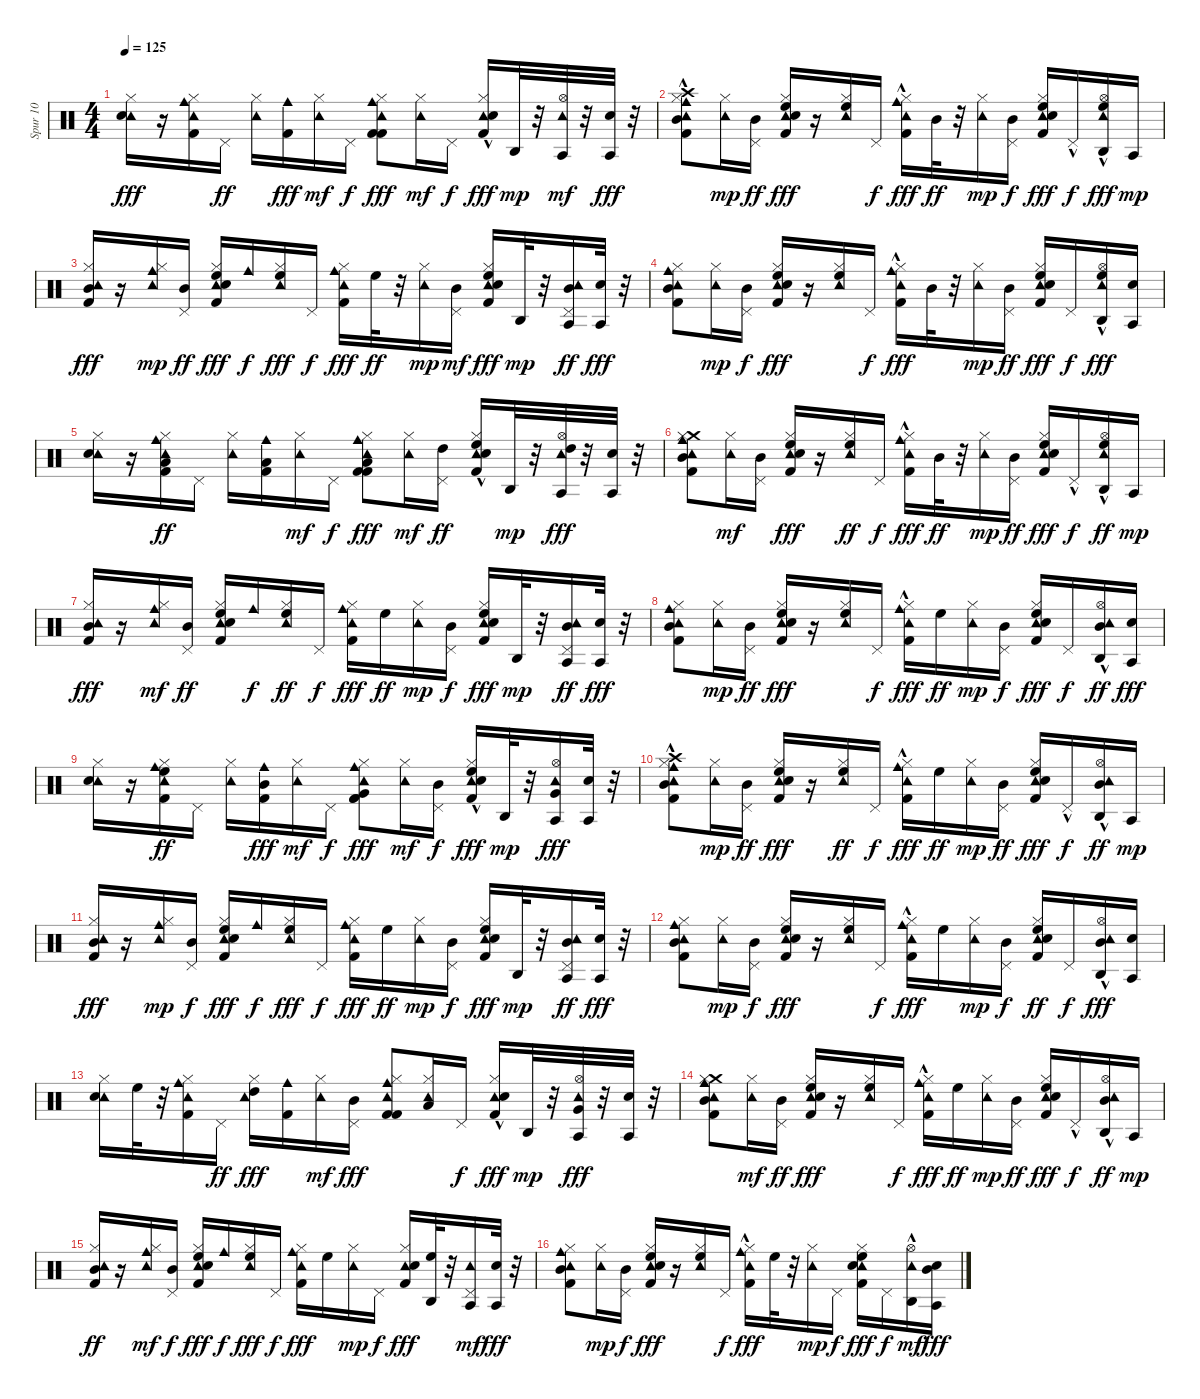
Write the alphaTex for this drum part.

\track ("Spur 10" "Spur 10") {instrument percussion}
\staff {score}
\articulation defaults
\ts (4 4)
\tempo 125
\clef neutral
\ks c
("Tambourine (hit)" "Electric Snare (hit)" "Hi-Hat (closed)").16{dy fff} r.16 ("Tambourine (hit)" "Cowbell medium (hit)" "Hi-Hat (closed)" "Kick (hit) 2").16 "Pedal Hi-Hat (hit)".16{dy ff} ("Tambourine (hit)" "Hi-Hat (closed)").16 ("Cowbell medium (hit)" "Kick (hit) 2").16{dy fff} ("Tambourine (hit)" "Hi-Hat (closed)").16{dy mf} "Pedal Hi-Hat (hit)".16{dy f} ("Tambourine (hit)" "Cowbell medium (hit)" "Kick (hit) 2" "Hi-Hat (closed)" "Kick (hit) 2").8{dy fff} ("Tambourine (hit)" "Hi-Hat (closed)").16{dy mf} "Pedal Hi-Hat (hit)".16{dy f} ("Tambourine (hit)" "Hi-Hat (closed)" "Kick (hit) 2"{hac} "Electric Snare (hit)").16{dy fff} "Agogo high (hit)".32{dy mp} r.32 ("Agogo tow (hit)" "Tambourine (hit)" "Hi-Hat (open)").32{dy mf} r.32 ("Agogo tow (hit)" "Electric Snare (hit)").32{dy fff} r.32 |
("Tambourine (hit)" "Cowbell medium (hit)" "Mid Tom (hit)" "Crash high (hit)"{hac} "Hi-Hat (closed)" "Kick (hit) 2").8 ("Tambourine (hit)" "Hi-Hat (closed)").16{dy mp} ("Pedal Hi-Hat (hit)" "Mid Tom (hit)").16{dy ff} ("Tambourine (hit)" "High Floor Tom (hit)" "Electric Snare (hit)" "Kick (hit) 2" "Hi-Hat (closed)").16{dy fff} r.16 ("Tambourine (hit)" "High Floor Tom (hit)" "Hi-Hat (closed)").16 "Pedal Hi-Hat (hit)".16{dy f} ("Tambourine (hit)" "Cowbell medium (hit)"{hac} "Kick (hit) 2" "Hi-Hat (closed)").16{dy fff} "Mid Tom (hit)".32{dy ff} r.32 ("Tambourine (hit)" "Hi-Hat (closed)").16{dy mp} ("Pedal Hi-Hat (hit)" "Mid Tom (hit)").16{dy f} ("Tambourine (hit)" "High Floor Tom (hit)" "Kick (hit) 2" "Electric Snare (hit)" "Hi-Hat (closed)").16{dy fff} "Pedal Hi-Hat (hit)"{hac}.16{dy f} ("Agogo high (hit)" "Tambourine (hit)" "High Floor Tom (hit)" "Hi-Hat (open)"{hac}).16{dy fff} "Agogo tow (hit)".16{dy mp} |
("Tambourine (hit)" "Mid Tom (hit)" "Kick (hit) 2" "Hi-Hat (closed)").16{dy fff} r.16 ("Cowbell medium (hit)" "Tambourine (hit)" "Hi-Hat (closed)").16{dy mp} ("Pedal Hi-Hat (hit)" "Mid Tom (hit)").16{dy ff} ("Tambourine (hit)" "Hi-Hat (closed)" "Kick (hit) 2" "Electric Snare (hit)" "High Floor Tom (hit)").16{dy fff} "Cowbell medium (hit)".16{dy f} ("Tambourine (hit)" "Hi-Hat (closed)" "High Floor Tom (hit)").16{dy fff} "Pedal Hi-Hat (hit)".16{dy f} ("Cowbell medium (hit)" "Tambourine (hit)" "Kick (hit) 2" "Hi-Hat (closed)").16{dy fff} "High Floor Tom (hit)".32{dy ff} r.32 ("Tambourine (hit)" "Hi-Hat (closed)").16{dy mp} ("Pedal Hi-Hat (hit)" "Mid Tom (hit)").16{dy mf} ("Tambourine (hit)" "Electric Snare (hit)" "Kick (hit) 2" "Hi-Hat (closed)" "High Floor Tom (hit)").16{dy fff} "Agogo high (hit)".32{dy mp} r.32 ("Agogo tow (hit)" "Tambourine (hit)" "Pedal Hi-Hat (hit)" "Mid Tom (hit)").16{dy ff} ("Agogo tow (hit)" "Electric Snare (hit)").32{dy fff} r.32 |
("Cowbell medium (hit)" "Tambourine (hit)" "Kick (hit) 2" "Hi-Hat (closed)" "Mid Tom (hit)").8 ("Tambourine (hit)" "Hi-Hat (closed)").16{dy mp} ("Mid Tom (hit)" "Pedal Hi-Hat (hit)").16{dy f} ("Tambourine (hit)" "High Floor Tom (hit)" "Electric Snare (hit)" "Kick (hit) 2" "Hi-Hat (closed)").16{dy fff} r.16 ("Tambourine (hit)" "Hi-Hat (closed)" "High Floor Tom (hit)").16 "Pedal Hi-Hat (hit)".16{dy f} ("Cowbell medium (hit)"{hac} "Tambourine (hit)" "Hi-Hat (closed)" "Kick (hit) 2").16{dy fff} "Mid Tom (hit)".32 r.32 ("Tambourine (hit)" "Hi-Hat (closed)").16{dy mp} ("Pedal Hi-Hat (hit)" "Mid Tom (hit)").16{dy ff} ("Tambourine (hit)" "Kick (hit) 2" "Electric Snare (hit)" "Hi-Hat (closed)" "High Floor Tom (hit)").16{dy fff} "Pedal Hi-Hat (hit)".16{dy f} ("Agogo high (hit)" "Tambourine (hit)" "Hi-Hat (open)"{hac} "High Floor Tom (hit)").16{dy fff} ("Agogo tow (hit)" "Electric Snare (hit)").16 |
("Tambourine (hit)" "Electric Snare (hit)" "Hi-Hat (closed)").16 r.16 ("Tambourine (hit)" "Cowbell medium (hit)" "Hi-Hat (closed)" "Kick (hit) 2" "Low Tom (hit)").16{dy ff} "Pedal Hi-Hat (hit)".16 ("Tambourine (hit)" "Hi-Hat (closed)").16 ("Cowbell medium (hit)" "Kick (hit) 2" "Low Tom (hit)").16 ("Tambourine (hit)" "Hi-Hat (closed)").16{dy mf} "Pedal Hi-Hat (hit)".16{dy f} ("Tambourine (hit)" "Cowbell medium (hit)" "Kick (hit) 2" "Hi-Hat (closed)" "Kick (hit) 2" "Low Tom (hit)").8{dy fff} ("Tambourine (hit)" "Hi-Hat (closed)").16{dy mf} ("Pedal Hi-Hat (hit)" "High Tom (hit)").16{dy ff} ("Tambourine (hit)" "Hi-Hat (closed)" "Kick (hit) 2"{hac} "Electric Snare (hit)" "High Floor Tom (hit)").16 "Agogo high (hit)".32{dy mp} r.32 ("Agogo tow (hit)" "Tambourine (hit)" "Hi-Hat (open)" "High Tom (hit)").32{dy fff} r.32 ("Agogo tow (hit)" "Electric Snare (hit)").32 r.32 |
("Tambourine (hit)" "Cowbell medium (hit)" "Mid Tom (hit)" "Crash medium (hit)" "Hi-Hat (closed)" "Kick (hit) 2").8 ("Tambourine (hit)" "Hi-Hat (closed)").16{dy mf} ("Mid Tom (hit)" "Pedal Hi-Hat (hit)").16 ("Tambourine (hit)" "High Floor Tom (hit)" "Electric Snare (hit)" "Kick (hit) 2" "Hi-Hat (closed)").16{dy fff} r.16 ("Tambourine (hit)" "High Floor Tom (hit)" "Hi-Hat (closed)").16{dy ff} "Pedal Hi-Hat (hit)".16{dy f} ("Tambourine (hit)" "Cowbell medium (hit)"{hac} "Kick (hit) 2" "Hi-Hat (closed)").16{dy fff} "Mid Tom (hit)".32{dy ff} r.32 ("Tambourine (hit)" "Hi-Hat (closed)").16{dy mp} ("Mid Tom (hit)" "Pedal Hi-Hat (hit)").16{dy ff} ("Tambourine (hit)" "High Floor Tom (hit)" "Kick (hit) 2" "Electric Snare (hit)" "Hi-Hat (closed)").16{dy fff} "Pedal Hi-Hat (hit)"{hac}.16{dy f} ("Agogo high (hit)" "Tambourine (hit)" "Hi-Hat (open)"{hac} "High Floor Tom (hit)").16{dy ff} "Agogo tow (hit)".16{dy mp} |
("Tambourine (hit)" "Mid Tom (hit)" "Kick (hit) 2" "Hi-Hat (closed)").16{dy fff} r.16 ("Cowbell medium (hit)" "Tambourine (hit)" "Hi-Hat (closed)").16{dy mf} ("Pedal Hi-Hat (hit)" "Mid Tom (hit)").16{dy ff} ("Tambourine (hit)" "Hi-Hat (closed)" "Kick (hit) 2" "Electric Snare (hit)" "High Floor Tom (hit)").16 "Cowbell medium (hit)".16{dy f} ("Tambourine (hit)" "Hi-Hat (closed)" "High Floor Tom (hit)").16{dy ff} "Pedal Hi-Hat (hit)".16{dy f} ("Cowbell medium (hit)" "Tambourine (hit)" "Kick (hit) 2" "Hi-Hat (closed)").16{dy fff} "High Floor Tom (hit)".16{dy ff} ("Tambourine (hit)" "Hi-Hat (closed)").16{dy mp} ("Pedal Hi-Hat (hit)" "Mid Tom (hit)").16{dy f} ("Tambourine (hit)" "High Floor Tom (hit)" "Electric Snare (hit)" "Kick (hit) 2" "Hi-Hat (closed)").16{dy fff} "Agogo high (hit)".32{dy mp} r.32 ("Agogo tow (hit)" "Tambourine (hit)" "Mid Tom (hit)" "Pedal Hi-Hat (hit)").16{dy ff} ("Agogo tow (hit)" "Electric Snare (hit)").32{dy fff} r.32 |
("Tambourine (hit)" "Cowbell medium (hit)" "Mid Tom (hit)" "Kick (hit) 2" "Hi-Hat (closed)").8 ("Tambourine (hit)" "Hi-Hat (closed)").16{dy mp} ("Mid Tom (hit)" "Pedal Hi-Hat (hit)").16{dy ff} ("Tambourine (hit)" "High Floor Tom (hit)" "Electric Snare (hit)" "Kick (hit) 2" "Hi-Hat (closed)").16{dy fff} r.16 ("Tambourine (hit)" "High Floor Tom (hit)" "Hi-Hat (closed)").16 "Pedal Hi-Hat (hit)".16{dy f} ("Tambourine (hit)" "Cowbell medium (hit)"{hac} "Hi-Hat (closed)" "Kick (hit) 2").16{dy fff} "High Floor Tom (hit)".16{dy ff} ("Tambourine (hit)" "Hi-Hat (closed)").16{dy mp} ("Pedal Hi-Hat (hit)" "Mid Tom (hit)").16{dy f} ("Tambourine (hit)" "Kick (hit) 2" "Electric Snare (hit)" "Hi-Hat (closed)" "High Floor Tom (hit)").16{dy fff} "Pedal Hi-Hat (hit)".16{dy f} ("Agogo high (hit)" "Tambourine (hit)" "Hi-Hat (open)"{hac} "Mid Tom (hit)").16{dy ff} ("Agogo tow (hit)" "Electric Snare (hit)").16{dy fff} |
("Tambourine (hit)" "Electric Snare (hit)" "Hi-Hat (closed)").16 r.16 ("Tambourine (hit)" "Cowbell medium (hit)" "Hi-Hat (closed)" "Kick (hit) 2" "High Floor Tom (hit)").16{dy ff} "Pedal Hi-Hat (hit)".16 ("Tambourine (hit)" "Hi-Hat (closed)").16 ("Cowbell medium (hit)" "Kick (hit) 2" "Mid Tom (hit)").16{dy fff} ("Tambourine (hit)" "Hi-Hat (closed)").16{dy mf} "Pedal Hi-Hat (hit)".16{dy f} ("Tambourine (hit)" "Cowbell medium (hit)" "Kick (hit) 2" "Hi-Hat (closed)" "Kick (hit) 2" "Very Low Tom (hit)").8{dy fff} ("Tambourine (hit)" "Hi-Hat (closed)").16{dy mf} ("Mid Tom (hit)" "Pedal Hi-Hat (hit)").16{dy f} ("Tambourine (hit)" "High Floor Tom (hit)" "Hi-Hat (closed)" "Kick (hit) 2"{hac} "Electric Snare (hit)").16{dy fff} "Agogo high (hit)".32{dy mp} r.32 ("Agogo tow (hit)" "Tambourine (hit)" "Very Low Tom (hit)" "Hi-Hat (open)").16{dy fff} ("Agogo tow (hit)" "Electric Snare (hit)").32 r.32 |
("Tambourine (hit)" "Cowbell medium (hit)" "Mid Tom (hit)" "Crash high (hit)"{hac} "Hi-Hat (closed)" "Kick (hit) 2").8 ("Tambourine (hit)" "Hi-Hat (closed)").16{dy mp} ("Pedal Hi-Hat (hit)" "Mid Tom (hit)").16{dy ff} ("Tambourine (hit)" "High Floor Tom (hit)" "Electric Snare (hit)" "Kick (hit) 2" "Hi-Hat (closed)").16{dy fff} r.16 ("Tambourine (hit)" "High Floor Tom (hit)" "Hi-Hat (closed)").16{dy ff} "Pedal Hi-Hat (hit)".16{dy f} ("Tambourine (hit)" "Cowbell medium (hit)"{hac} "Kick (hit) 2" "Hi-Hat (closed)").16{dy fff} "High Floor Tom (hit)".16{dy ff} ("Tambourine (hit)" "Hi-Hat (closed)").16{dy mp} ("Pedal Hi-Hat (hit)" "Mid Tom (hit)").16{dy ff} ("Tambourine (hit)" "Kick (hit) 2" "Electric Snare (hit)" "Hi-Hat (closed)" "High Floor Tom (hit)").16{dy fff} "Pedal Hi-Hat (hit)"{hac}.16{dy f} ("Agogo high (hit)" "Tambourine (hit)" "Hi-Hat (open)"{hac} "Mid Tom (hit)").16{dy ff} "Agogo tow (hit)".16{dy mp} |
("Tambourine (hit)" "Mid Tom (hit)" "Kick (hit) 2" "Hi-Hat (closed)").16{dy fff} r.16 ("Cowbell medium (hit)" "Tambourine (hit)" "Hi-Hat (closed)").16{dy mp} ("Mid Tom (hit)" "Pedal Hi-Hat (hit)").16{dy f} ("Tambourine (hit)" "High Floor Tom (hit)" "Hi-Hat (closed)" "Kick (hit) 2" "Electric Snare (hit)").16{dy fff} "Cowbell medium (hit)".16{dy f} ("Tambourine (hit)" "Hi-Hat (closed)" "High Floor Tom (hit)").16{dy fff} "Pedal Hi-Hat (hit)".16{dy f} ("Cowbell medium (hit)" "Tambourine (hit)" "Kick (hit) 2" "Hi-Hat (closed)").16{dy fff} "High Floor Tom (hit)".16{dy ff} ("Tambourine (hit)" "Hi-Hat (closed)").16{dy mp} ("Pedal Hi-Hat (hit)" "Mid Tom (hit)").16{dy f} ("Tambourine (hit)" "Electric Snare (hit)" "Kick (hit) 2" "Hi-Hat (closed)" "High Floor Tom (hit)").16{dy fff} "Agogo high (hit)".32{dy mp} r.32 ("Agogo tow (hit)" "Tambourine (hit)" "Pedal Hi-Hat (hit)" "Mid Tom (hit)").16{dy ff} ("Agogo tow (hit)" "Electric Snare (hit)").32{dy fff} r.32 |
("Cowbell medium (hit)" "Tambourine (hit)" "Kick (hit) 2" "Hi-Hat (closed)" "Mid Tom (hit)").8 ("Tambourine (hit)" "Hi-Hat (closed)").16{dy mp} ("Mid Tom (hit)" "Pedal Hi-Hat (hit)").16{dy f} ("Tambourine (hit)" "High Floor Tom (hit)" "Electric Snare (hit)" "Kick (hit) 2" "Hi-Hat (closed)").16{dy fff} r.16 ("Tambourine (hit)" "Hi-Hat (closed)" "High Floor Tom (hit)").16 "Pedal Hi-Hat (hit)".16{dy f} ("Cowbell medium (hit)"{hac} "Tambourine (hit)" "Hi-Hat (closed)" "Kick (hit) 2").16{dy fff} "High Floor Tom (hit)".16 ("Tambourine (hit)" "Hi-Hat (closed)").16{dy mp} ("Pedal Hi-Hat (hit)" "Mid Tom (hit)").16{dy f} ("Tambourine (hit)" "Kick (hit) 2" "Electric Snare (hit)" "Hi-Hat (closed)" "High Floor Tom (hit)").16{dy ff} "Pedal Hi-Hat (hit)".16{dy f} ("Agogo high (hit)" "Tambourine (hit)" "Hi-Hat (open)"{hac} "Mid Tom (hit)"{hac}).16{dy fff} ("Agogo tow (hit)" "Electric Snare (hit)").16 |
("Tambourine (hit)" "Electric Snare (hit)" "Hi-Hat (closed)").16 "High Floor Tom (hit)".32 r.32 ("Tambourine (hit)" "Cowbell medium (hit)" "Hi-Hat (closed)" "Kick (hit) 2").16 "Pedal Hi-Hat (hit)".16{dy ff} ("Tambourine (hit)" "High Tom (hit)" "Hi-Hat (closed)").16{dy fff} ("Cowbell medium (hit)" "Kick (hit) 2").16 ("Tambourine (hit)" "Hi-Hat (closed)").16{dy mf} ("Mid Tom (hit)" "Pedal Hi-Hat (hit)").16{dy fff} ("Tambourine (hit)" "Cowbell medium (hit)" "Kick (hit) 2" "Hi-Hat (closed)" "Kick (hit) 2").8 ("Tambourine (hit)" "Hi-Hat (closed)" "Low Tom (hit)").16 "Pedal Hi-Hat (hit)".16{dy f} ("Tambourine (hit)" "Hi-Hat (closed)" "Kick (hit) 2"{hac} "Electric Snare (hit)").16{dy fff} "Agogo high (hit)".32{dy mp} r.32 ("Agogo tow (hit)" "Tambourine (hit)" "Very Low Tom (hit)" "Hi-Hat (open)").32{dy fff} r.32 ("Agogo tow (hit)" "Electric Snare (hit)").32 r.32 |
("Tambourine (hit)" "Cowbell medium (hit)" "Mid Tom (hit)" "Crash medium (hit)" "Hi-Hat (closed)" "Kick (hit) 2").8 ("Tambourine (hit)" "Hi-Hat (closed)").16{dy mf} ("Pedal Hi-Hat (hit)" "Mid Tom (hit)").16{dy ff} ("Tambourine (hit)" "High Floor Tom (hit)" "Electric Snare (hit)" "Kick (hit) 2" "Hi-Hat (closed)").16{dy fff} r.16 ("Tambourine (hit)" "High Floor Tom (hit)" "Hi-Hat (closed)").16 "Pedal Hi-Hat (hit)".16{dy f} ("Tambourine (hit)" "Cowbell medium (hit)"{hac} "Kick (hit) 2" "Hi-Hat (closed)").16{dy fff} "High Floor Tom (hit)".16{dy ff} ("Tambourine (hit)" "Hi-Hat (closed)").16{dy mp} ("Pedal Hi-Hat (hit)" "Mid Tom (hit)").16{dy ff} ("Tambourine (hit)" "Kick (hit) 2" "Electric Snare (hit)" "Hi-Hat (closed)" "High Floor Tom (hit)").16{dy fff} "Pedal Hi-Hat (hit)"{hac}.16{dy f} ("Agogo high (hit)" "Tambourine (hit)" "Hi-Hat (open)"{hac} "Mid Tom (hit)").16{dy ff} "Agogo tow (hit)".16{dy mp} |
("Tambourine (hit)" "Kick (hit) 2" "Hi-Hat (closed)" "Mid Tom (hit)").16{dy ff} r.16 ("Cowbell medium (hit)" "Tambourine (hit)" "Hi-Hat (closed)").16{dy mf} ("Pedal Hi-Hat (hit)" "Mid Tom (hit)").16{dy f} ("Tambourine (hit)" "Hi-Hat (closed)" "Kick (hit) 2" "Electric Snare (hit)" "High Floor Tom (hit)").16{dy fff} "Cowbell medium (hit)".16{dy f} ("Tambourine (hit)" "Hi-Hat (closed)" "High Floor Tom (hit)").16{dy fff} "Pedal Hi-Hat (hit)".16{dy f} ("Cowbell medium (hit)" "Tambourine (hit)" "Kick (hit) 2" "Hi-Hat (closed)").16{dy fff} "High Floor Tom (hit)".16 ("Tambourine (hit)" "Hi-Hat (closed)").16{dy mp} "Pedal Hi-Hat (hit)".16{dy f} ("Tambourine (hit)" "Electric Snare (hit)" "Kick (hit) 2" "Hi-Hat (closed)").16{dy fff} ("Agogo high (hit)" "High Floor Tom (hit)").32 r.32 ("Agogo tow (hit)" "Tambourine (hit)" "Pedal Hi-Hat (hit)").16{dy mf} ("Agogo tow (hit)" "Electric Snare (hit)").32{dy fff} r.32 |
("Tambourine (hit)" "Cowbell medium (hit)" "Kick (hit) 2" "Hi-Hat (closed)" "Mid Tom (hit)").8 ("Tambourine (hit)" "Hi-Hat (closed)").16{dy mp} ("Mid Tom (hit)" "Pedal Hi-Hat (hit)").16{dy f} ("Tambourine (hit)" "High Floor Tom (hit)" "Electric Snare (hit)" "Kick (hit) 2" "Hi-Hat (closed)").16{dy fff} r.16 ("Tambourine (hit)" "High Floor Tom (hit)" "Hi-Hat (closed)").16 "Pedal Hi-Hat (hit)".16{dy f} ("Tambourine (hit)" "Cowbell medium (hit)"{hac} "Hi-Hat (closed)" "Kick (hit) 2").16{dy fff} "High Floor Tom (hit)".32 r.32 ("Tambourine (hit)" "Hi-Hat (closed)").16{dy mp} "Pedal Hi-Hat (hit)".16{dy f} ("Tambourine (hit)" "High Floor Tom (hit)" "Kick (hit) 2" "Electric Snare (hit)" "Hi-Hat (closed)").16{dy fff} "Pedal Hi-Hat (hit)".16{dy f} ("Agogo high (hit)" "Tambourine (hit)" "Hi-Hat (open)"{hac}).16{dy mf} ("Agogo tow (hit)" "Electric Snare (hit)" "Mid Tom (hit)").16{dy fff}
